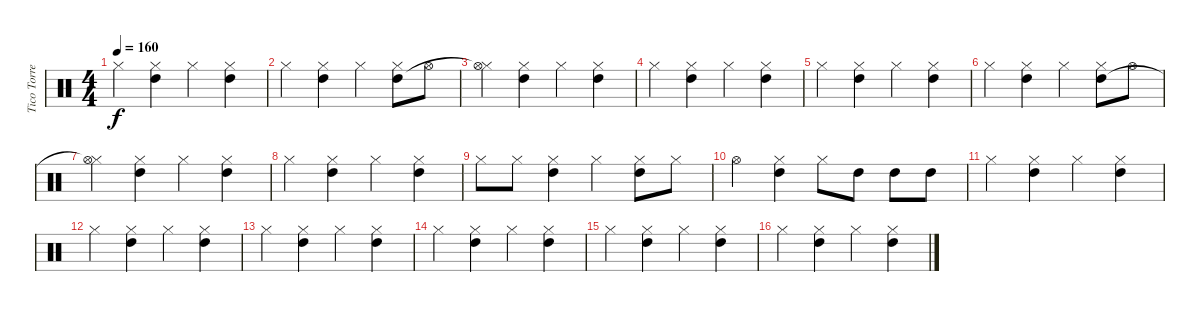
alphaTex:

\track ("Tico Torres" "Tico Torre") {instrument percussion}
\staff {score}
\articulation defaults
\ts (4 4)
\tempo 160
\clef neutral
\ks c "Hi-Hat (closed)".4{dy f}
("Hi-Hat (closed)" "High Tom (hit)").4 "Hi-Hat (closed)".4 ("Hi-Hat (closed)" "High Tom (hit)").4 |
"Hi-Hat (closed)".4 ("Hi-Hat (closed)" "High Tom (hit)").4 "Hi-Hat (closed)".4 ("Hi-Hat (closed)" "High Tom (hit)").8 "Hi-Hat (open)".8 |
("Hi-Hat (closed)" "Hi-Hat (open)"{t}).4 ("Hi-Hat (closed)" "High Tom (hit)").4 "Hi-Hat (closed)".4 ("Hi-Hat (closed)" "High Tom (hit)").4 |
"Hi-Hat (closed)".4 ("Hi-Hat (closed)" "High Tom (hit)").4 "Hi-Hat (closed)".4 ("Hi-Hat (closed)" "High Tom (hit)").4 |
"Hi-Hat (closed)".4 ("Hi-Hat (closed)" "High Tom (hit)").4 "Hi-Hat (closed)".4 ("Hi-Hat (closed)" "High Tom (hit)").4 |
"Hi-Hat (closed)".4 ("Hi-Hat (closed)" "High Tom (hit)").4 "Hi-Hat (closed)".4 ("Hi-Hat (closed)" "High Tom (hit)").8 "Hi-Hat (open)".8 |
("Hi-Hat (closed)" "Hi-Hat (open)"{t}).4 ("Hi-Hat (closed)" "High Tom (hit)").4 "Hi-Hat (closed)".4 ("Hi-Hat (closed)" "High Tom (hit)").4 |
"Hi-Hat (closed)".4 ("Hi-Hat (closed)" "High Tom (hit)").4 "Hi-Hat (closed)".4 ("Hi-Hat (closed)" "High Tom (hit)").4 |
"Hi-Hat (closed)".8 "Hi-Hat (closed)".8 ("Hi-Hat (closed)" "High Tom (hit)").4 "Hi-Hat (closed)".4 ("Hi-Hat (closed)" "High Tom (hit)").8 "Hi-Hat (closed)".8 |
"Hi-Hat (open)".4 ("Hi-Hat (closed)" "High Tom (hit)").4 "Hi-Hat (closed)".8 "High Tom (hit)".8 "High Tom (hit)".8 "High Tom (hit)".8 |
"Hi-Hat (closed)".4 ("Hi-Hat (closed)" "High Tom (hit)").4 "Hi-Hat (closed)".4 ("Hi-Hat (closed)" "High Tom (hit)").4 |
"Hi-Hat (closed)".4 ("Hi-Hat (closed)" "High Tom (hit)").4 "Hi-Hat (closed)".4 ("Hi-Hat (closed)" "High Tom (hit)").4 |
"Hi-Hat (closed)".4 ("Hi-Hat (closed)" "High Tom (hit)").4 "Hi-Hat (closed)".4 ("Hi-Hat (closed)" "High Tom (hit)").4 |
"Hi-Hat (closed)".4 ("Hi-Hat (closed)" "High Tom (hit)").4 "Hi-Hat (closed)".4 ("Hi-Hat (closed)" "High Tom (hit)").4 |
"Hi-Hat (closed)".4 ("Hi-Hat (closed)" "High Tom (hit)").4 "Hi-Hat (closed)".4 ("Hi-Hat (closed)" "High Tom (hit)").4 |
"Hi-Hat (closed)".4 ("Hi-Hat (closed)" "High Tom (hit)").4 "Hi-Hat (closed)".4 ("Hi-Hat (closed)" "High Tom (hit)").4
